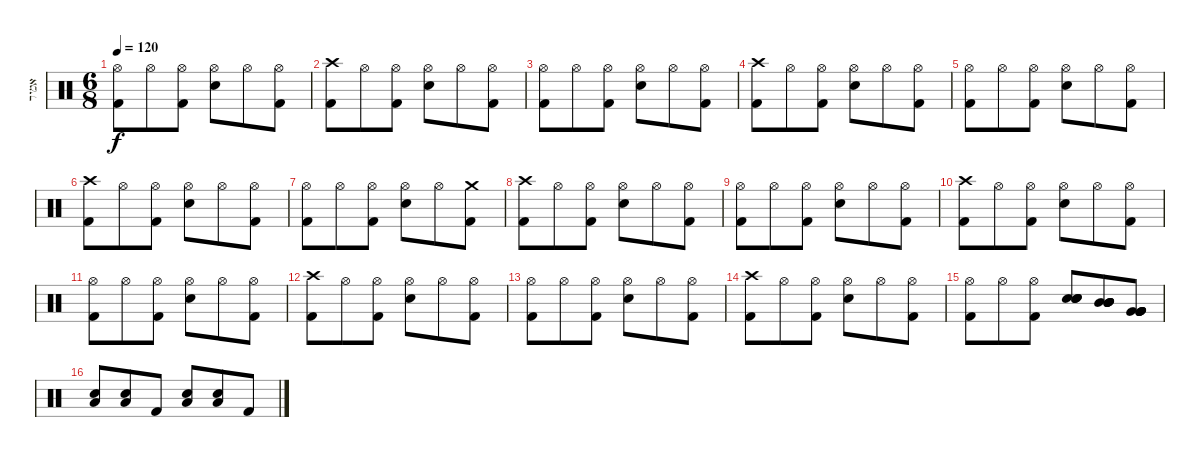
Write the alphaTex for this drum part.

\track ("אמיר" "אמיר") {instrument percussion}
\staff {score}
\articulation defaults
\ts (6 8)
\tempo 120
\clef neutral
\ks c
("Hi-Hat (open)" "Kick (hit) 2").8{dy f} "Hi-Hat (open)".8 ("Hi-Hat (open)" "Kick (hit) 2").8 ("Hi-Hat (open)" "Snare (hit) 2").8 "Hi-Hat (open)".8 ("Hi-Hat (open)" "Kick (hit) 2").8 |
("Crash high (hit)" "Kick (hit) 2").8 "Hi-Hat (open)".8 ("Hi-Hat (open)" "Kick (hit) 2").8 ("Hi-Hat (open)" "Snare (hit) 2").8 "Hi-Hat (open)".8 ("Hi-Hat (open)" "Kick (hit) 2").8 |
("Hi-Hat (open)" "Kick (hit) 2").8 "Hi-Hat (open)".8 ("Hi-Hat (open)" "Kick (hit) 2").8 ("Hi-Hat (open)" "Snare (hit) 2").8 "Hi-Hat (open)".8 ("Hi-Hat (open)" "Kick (hit) 2").8 |
("Crash high (hit)" "Kick (hit) 2").8 "Hi-Hat (open)".8 ("Hi-Hat (open)" "Kick (hit) 2").8 ("Hi-Hat (open)" "Snare (hit) 2").8 "Hi-Hat (open)".8 ("Hi-Hat (open)" "Kick (hit) 2").8 |
("Hi-Hat (open)" "Kick (hit) 2").8 "Hi-Hat (open)".8 ("Hi-Hat (open)" "Kick (hit) 2").8 ("Hi-Hat (open)" "Snare (hit) 2").8 "Hi-Hat (open)".8 ("Hi-Hat (open)" "Kick (hit) 2").8 |
("Crash high (hit)" "Kick (hit) 2").8 "Hi-Hat (open)".8 ("Hi-Hat (open)" "Kick (hit) 2").8 ("Hi-Hat (open)" "Snare (hit) 2").8 "Hi-Hat (open)".8 ("Hi-Hat (open)" "Kick (hit) 2").8 |
("Hi-Hat (open)" "Kick (hit) 2").8 "Hi-Hat (open)".8 ("Hi-Hat (open)" "Kick (hit) 2").8 ("Hi-Hat (open)" "Snare (hit) 2").8 "Hi-Hat (open)".8 ("Crash medium (hit)" "Kick (hit) 2").8 |
("Crash high (hit)" "Kick (hit) 2").8 "Hi-Hat (open)".8 ("Hi-Hat (open)" "Kick (hit) 2").8 ("Hi-Hat (open)" "Snare (hit) 2").8 "Hi-Hat (open)".8 ("Hi-Hat (open)" "Kick (hit) 2").8 |
("Hi-Hat (open)" "Kick (hit) 2").8 "Hi-Hat (open)".8 ("Hi-Hat (open)" "Kick (hit) 2").8 ("Hi-Hat (open)" "Snare (hit) 2").8 "Hi-Hat (open)".8 ("Hi-Hat (open)" "Kick (hit) 2").8 |
("Crash high (hit)" "Kick (hit) 2").8 "Hi-Hat (open)".8 ("Hi-Hat (open)" "Kick (hit) 2").8 ("Hi-Hat (open)" "Snare (hit) 2").8 "Hi-Hat (open)".8 ("Hi-Hat (open)" "Kick (hit) 2").8 |
("Hi-Hat (open)" "Kick (hit) 2").8 "Hi-Hat (open)".8 ("Hi-Hat (open)" "Kick (hit) 2").8 ("Hi-Hat (open)" "Snare (hit) 2").8 "Hi-Hat (open)".8 ("Hi-Hat (open)" "Kick (hit) 2").8 |
("Crash high (hit)" "Kick (hit) 2").8 "Hi-Hat (open)".8 ("Hi-Hat (open)" "Kick (hit) 2").8 ("Hi-Hat (open)" "Snare (hit) 2").8 "Hi-Hat (open)".8 ("Hi-Hat (open)" "Kick (hit) 2").8 |
("Hi-Hat (open)" "Kick (hit) 2").8 "Hi-Hat (open)".8 ("Hi-Hat (open)" "Kick (hit) 2").8 ("Hi-Hat (open)" "Snare (hit) 2").8 "Hi-Hat (open)".8 ("Hi-Hat (open)" "Kick (hit) 2").8 |
("Crash high (hit)" "Kick (hit) 2").8 "Hi-Hat (open)".8 ("Hi-Hat (open)" "Kick (hit) 2").8 ("Hi-Hat (open)" "Snare (hit) 2").8 "Hi-Hat (open)".8 ("Hi-Hat (open)" "Kick (hit) 2").8 |
("Hi-Hat (open)" "Kick (hit) 2").8 "Hi-Hat (open)".8 ("Hi-Hat (open)" "Kick (hit) 2").8 ("Snare (hit) 2" "Snare (hit) 2" "Snare (hit) 2" "Snare (hit) 2").8 ("Mid Tom (hit)" "Mid Tom (hit)" "Mid Tom (hit)" "Mid Tom (hit)" "Mid Tom (hit)").8 ("Very Low Tom (hit)" "Very Low Tom (hit)" "Very Low Tom (hit)" "Very Low Tom (hit)" "Very Low Tom (hit)").8 |
("Snare (hit) 2" "Low Floor Tom (hit)").8 ("Snare (hit) 2" "Low Floor Tom (hit)").8 "Kick (hit) 2".8 ("Snare (hit) 2" "Low Floor Tom (hit)").8 ("Snare (hit) 2" "Low Floor Tom (hit)").8 "Kick (hit) 2".8
